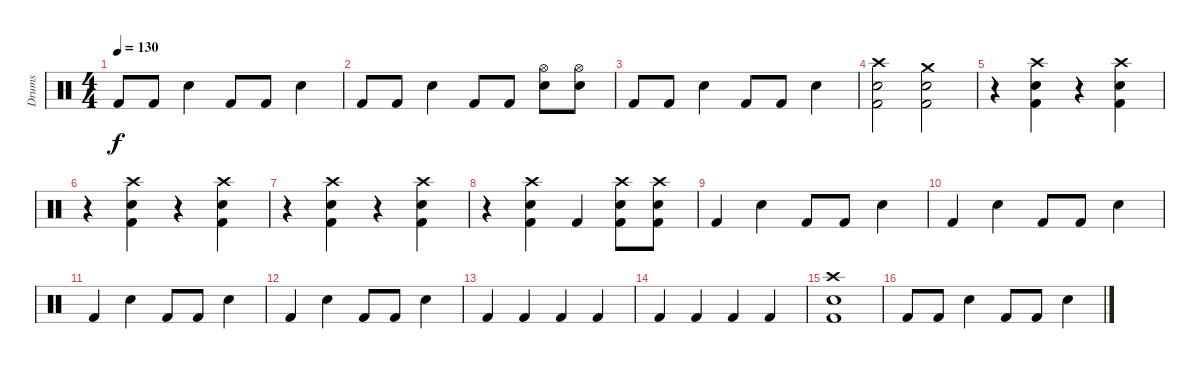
\track ("Drums" "Drums") {instrument percussion}
\staff {score}
\articulation defaults
\ts (4 4)
\tempo 130
\clef neutral
\ks c "Kick (hit) 2".8{dy f} "Kick (hit) 2".8 "Snare (hit) 2".4 "Kick (hit) 2".8 "Kick (hit) 2".8 "Snare (hit) 2".4
|
"Kick (hit) 2".8 "Kick (hit) 2".8 "Snare (hit) 2".4 "Kick (hit) 2".8 "Kick (hit) 2".8 ("Snare (hit) 2" "Hi-Hat (open)").8 ("Snare (hit) 2" "Hi-Hat (open)").8 |
"Kick (hit) 2".8 "Kick (hit) 2".8 "Snare (hit) 2".4 "Kick (hit) 2".8 "Kick (hit) 2".8 "Snare (hit) 2".4 |
("Kick (hit) 2" "Snare (hit) 2" "Crash high (hit)").2 ("Kick (hit) 2" "Snare (hit) 2" "Crash medium (hit)").2 |
r.4 ("Kick (hit) 2" "Snare (hit) 2" "Crash high (hit)").4 r.4 ("Kick (hit) 2" "Snare (hit) 2" "Crash high (hit)").4 |
r.4 ("Kick (hit) 2" "Snare (hit) 2" "Crash high (hit)").4 r.4 ("Kick (hit) 2" "Snare (hit) 2" "Crash high (hit)").4 |
r.4 ("Kick (hit) 2" "Snare (hit) 2" "Crash high (hit)").4 r.4 ("Kick (hit) 2" "Snare (hit) 2" "Crash high (hit)").4 |
r.4 ("Kick (hit) 2" "Snare (hit) 2" "Crash high (hit)").4 "Kick (hit) 2".4 ("Kick (hit) 2" "Snare (hit) 2" "Crash high (hit)").8 ("Kick (hit) 2" "Snare (hit) 2" "Crash high (hit)").8 |
"Kick (hit) 2".4 "Snare (hit) 2".4 "Kick (hit) 2".8 "Kick (hit) 2".8 "Snare (hit) 2".4 |
"Kick (hit) 2".4 "Snare (hit) 2".4 "Kick (hit) 2".8 "Kick (hit) 2".8 "Snare (hit) 2".4 |
"Kick (hit) 2".4 "Snare (hit) 2".4 "Kick (hit) 2".8 "Kick (hit) 2".8 "Snare (hit) 2".4 |
"Kick (hit) 2".4 "Snare (hit) 2".4 "Kick (hit) 2".8 "Kick (hit) 2".8 "Snare (hit) 2".4 |
"Kick (hit) 2".4 "Kick (hit) 2".4 "Kick (hit) 2".4 "Kick (hit) 2".4 |
"Kick (hit) 2".4 "Kick (hit) 2".4 "Kick (hit) 2".4 "Kick (hit) 2".4 |
("Kick (hit) 2" "Snare (hit) 2" "Crash high (hit)").1 |
"Kick (hit) 2".8 "Kick (hit) 2".8 "Snare (hit) 2".4 "Kick (hit) 2".8 "Kick (hit) 2".8 "Snare (hit) 2".4
